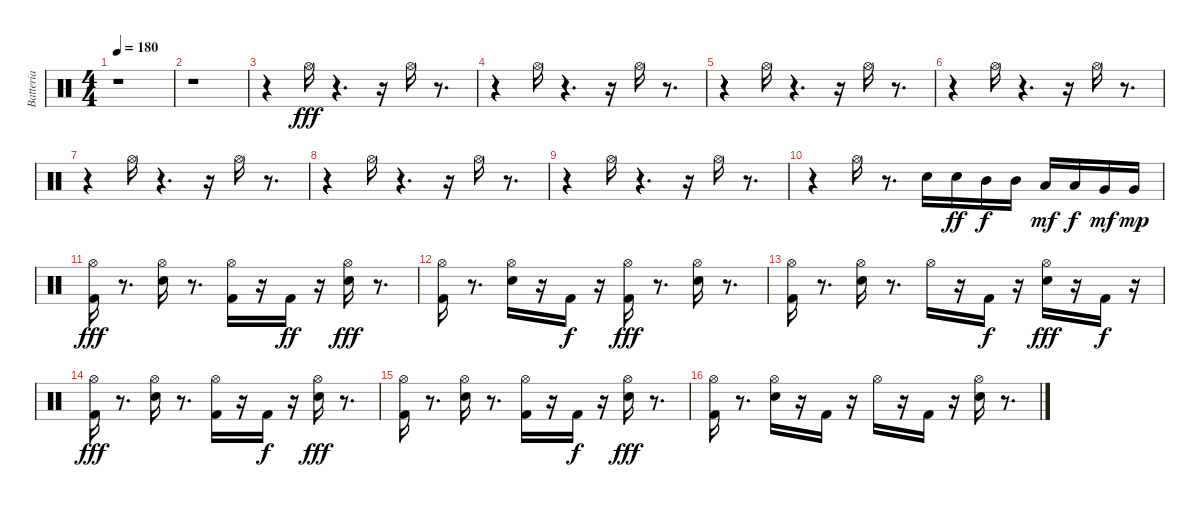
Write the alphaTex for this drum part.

\track ("Batteria" "Batteria") {instrument percussion}
\staff {score}
\articulation defaults
\ts (4 4)
\tempo 180
\clef neutral
\ks c
r.1{dy fff} |
r.1 |
r.4 "Hi-Hat (open)".16 r.4{d} r.16 "Hi-Hat (open)".16 r.8{d} |
r.4 "Hi-Hat (open)".16 r.4{d} r.16 "Hi-Hat (open)".16 r.8{d} |
r.4 "Hi-Hat (open)".16 r.4{d} r.16 "Hi-Hat (open)".16 r.8{d} |
r.4 "Hi-Hat (open)".16 r.4{d} r.16 "Hi-Hat (open)".16 r.8{d} |
r.4 "Hi-Hat (open)".16 r.4{d} r.16 "Hi-Hat (open)".16 r.8{d} |
r.4 "Hi-Hat (open)".16 r.4{d} r.16 "Hi-Hat (open)".16 r.8{d} |
r.4 "Hi-Hat (open)".16 r.4{d} r.16 "Hi-Hat (open)".16 r.8{d} |
r.4 "Hi-Hat (open)".16 r.8{d} "Electric Snare (hit)".16 "Electric Snare (hit)".16{dy ff} "Mid Tom (hit)".16{dy f} "Mid Tom (hit)".16 "Low Tom (hit)".16{dy mf} "Low Tom (hit)".16{dy f} "Very Low Tom (hit)".16{dy mf} "Very Low Tom (hit)".16{dy mp} |
("Hi-Hat (open)" "Kick (hit) 2").16{dy fff} r.8{d} ("Hi-Hat (open)" "Electric Snare (hit)").16 r.8{d} ("Kick (hit) 2" "Hi-Hat (open)").16 r.16 "Kick (hit) 2".16{dy ff} r.16 ("Hi-Hat (open)" "Electric Snare (hit)").16{dy fff} r.8{d} |
("Hi-Hat (open)" "Kick (hit) 2").16 r.8{d} ("Hi-Hat (open)" "Electric Snare (hit)").16 r.16 "Kick (hit) 2".16{dy f} r.16 ("Kick (hit) 2" "Hi-Hat (open)").16{dy fff} r.8{d} ("Hi-Hat (open)" "Electric Snare (hit)").16 r.8{d} |
("Kick (hit) 2" "Hi-Hat (open)").16 r.8{d} ("Electric Snare (hit)" "Hi-Hat (open)").16 r.8{d} "Hi-Hat (open)".16 r.16 "Kick (hit) 2".16{dy f} r.16 ("Electric Snare (hit)" "Hi-Hat (open)").16{dy fff} r.16 "Kick (hit) 2".16{dy f} r.16 |
("Kick (hit) 2" "Hi-Hat (open)").16{dy fff} r.8{d} ("Electric Snare (hit)" "Hi-Hat (open)").16 r.8{d} ("Hi-Hat (open)" "Kick (hit) 2").16 r.16 "Kick (hit) 2".16{dy f} r.16 ("Electric Snare (hit)" "Hi-Hat (open)").16{dy fff} r.8{d} |
("Kick (hit) 2" "Hi-Hat (open)").16 r.8{d} ("Electric Snare (hit)" "Hi-Hat (open)").16 r.8{d} ("Hi-Hat (open)" "Kick (hit) 2").16 r.16 "Kick (hit) 2".16{dy f} r.16 ("Electric Snare (hit)" "Hi-Hat (open)").16{dy fff} r.8{d} |
("Kick (hit) 2" "Hi-Hat (open)").16 r.8{d} ("Electric Snare (hit)" "Hi-Hat (open)").16 r.16 "Kick (hit) 2".16 r.16 "Hi-Hat (open)".16 r.16 "Kick (hit) 2".16 r.16 ("Hi-Hat (open)" "Electric Snare (hit)").16 r.8{d}
